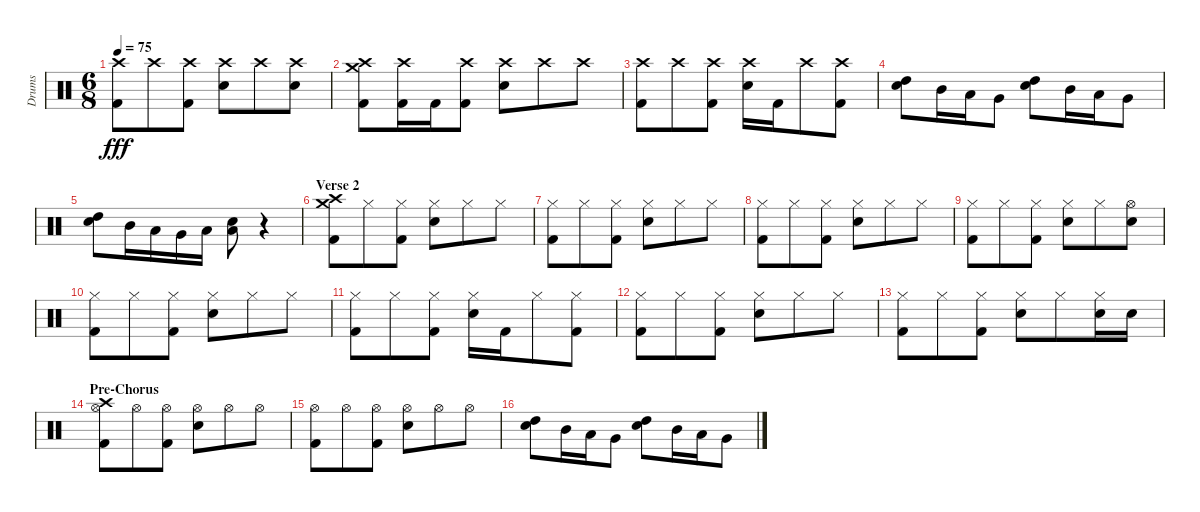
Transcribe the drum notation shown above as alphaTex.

\track ("Drums" "Drums") {instrument percussion}
\staff {score}
\articulation defaults
\ts (6 8)
\tempo 75
\clef neutral
\ks c
("Crash high (hit)" "Kick (hit) 2").8{dy fff} "Crash high (hit)".8 ("Crash high (hit)" "Kick (hit) 2").8 ("Crash high (hit)" "Electric Snare (hit)").8 "Crash high (hit)".8 ("Crash high (hit)" "Electric Snare (hit)").8 |
("Crash high (hit)" "Crash medium (hit)" "Kick (hit) 2").8 ("Crash high (hit)" "Kick (hit) 2").16 "Kick (hit) 2".16 ("Crash high (hit)" "Kick (hit) 2").8 ("Crash high (hit)" "Electric Snare (hit)").8 "Crash high (hit)".8 "Crash high (hit)".8 |
("Crash high (hit)" "Kick (hit) 2").8 "Crash high (hit)".8 ("Crash high (hit)" "Kick (hit) 2").8 ("Crash high (hit)" "Electric Snare (hit)").16 "Kick (hit) 2".16 "Crash high (hit)".8 ("Crash high (hit)" "Kick (hit) 2").8 |
("High Tom (hit)" "Electric Snare (hit)").8 "Mid Tom (hit)".16 "Low Tom (hit)".16 "Very Low Tom (hit)".8 ("High Tom (hit)" "Electric Snare (hit)").8 "Mid Tom (hit)".16 "Low Tom (hit)".16 "Very Low Tom (hit)".8 |
("High Tom (hit)" "Electric Snare (hit)").8 "Mid Tom (hit)".16 "Low Tom (hit)".16 "Very Low Tom (hit)".16 "Low Floor Tom (hit)".16 ("Low Tom (hit)" "Electric Snare (hit)").8 r.4 |
\section ("" "Verse 2")
("Crash high (hit)" "Crash medium (hit)" "Kick (hit) 2").8 "Hi-Hat (closed)".8 ("Hi-Hat (closed)" "Kick (hit) 2").8 ("Hi-Hat (closed)" "Electric Snare (hit)").8 "Hi-Hat (closed)".8 "Hi-Hat (closed)".8 |
("Hi-Hat (closed)" "Kick (hit) 2").8 "Hi-Hat (closed)".8 ("Hi-Hat (closed)" "Kick (hit) 2").8 ("Hi-Hat (closed)" "Electric Snare (hit)").8 "Hi-Hat (closed)".8 "Hi-Hat (closed)".8 |
("Hi-Hat (closed)" "Kick (hit) 2").8 "Hi-Hat (closed)".8 ("Hi-Hat (closed)" "Kick (hit) 2").8 ("Hi-Hat (closed)" "Electric Snare (hit)").8 "Hi-Hat (closed)".8 "Hi-Hat (closed)".8 |
("Hi-Hat (closed)" "Kick (hit) 2").8 "Hi-Hat (closed)".8 ("Hi-Hat (closed)" "Kick (hit) 2").8 ("Hi-Hat (closed)" "Electric Snare (hit)").8 "Hi-Hat (closed)".8 ("Hi-Hat (open)" "Electric Snare (hit)").8 |
("Hi-Hat (closed)" "Kick (hit) 2").8 "Hi-Hat (closed)".8 ("Hi-Hat (closed)" "Kick (hit) 2").8 ("Hi-Hat (closed)" "Electric Snare (hit)").8 "Hi-Hat (closed)".8 "Hi-Hat (closed)".8 |
("Hi-Hat (closed)" "Kick (hit) 2").8 "Hi-Hat (closed)".8 ("Hi-Hat (closed)" "Kick (hit) 2").8 ("Hi-Hat (closed)" "Electric Snare (hit)").16 "Kick (hit) 2".16 "Hi-Hat (closed)".8 ("Hi-Hat (closed)" "Kick (hit) 2").8 |
("Hi-Hat (closed)" "Kick (hit) 2").8 "Hi-Hat (closed)".8 ("Hi-Hat (closed)" "Kick (hit) 2").8 ("Hi-Hat (closed)" "Electric Snare (hit)").8 "Hi-Hat (closed)".8 "Hi-Hat (closed)".8 |
("Hi-Hat (closed)" "Kick (hit) 2").8 "Hi-Hat (closed)".8 ("Hi-Hat (closed)" "Kick (hit) 2").8 ("Hi-Hat (closed)" "Electric Snare (hit)").8 "Hi-Hat (closed)".8 ("Hi-Hat (closed)" "Electric Snare (hit)").16 "Electric Snare (hit)".16 |
\section ("" "Pre-Chorus")
("Crash high (hit)" "Hi-Hat (open)" "Kick (hit) 2").8 "Hi-Hat (open)".8 ("Hi-Hat (open)" "Kick (hit) 2").8 ("Hi-Hat (open)" "Electric Snare (hit)").8 "Hi-Hat (open)".8 "Hi-Hat (open)".8 |
("Hi-Hat (open)" "Kick (hit) 2").8 "Hi-Hat (open)".8 ("Hi-Hat (open)" "Kick (hit) 2").8 ("Hi-Hat (open)" "Electric Snare (hit)").8 "Hi-Hat (open)".8 "Hi-Hat (open)".8 |
("High Tom (hit)" "Electric Snare (hit)").8 "Mid Tom (hit)".16 "Low Tom (hit)".16 "Very Low Tom (hit)".8 ("High Tom (hit)" "Electric Snare (hit)").8 "Mid Tom (hit)".16 "Low Tom (hit)".16 "Very Low Tom (hit)".8
